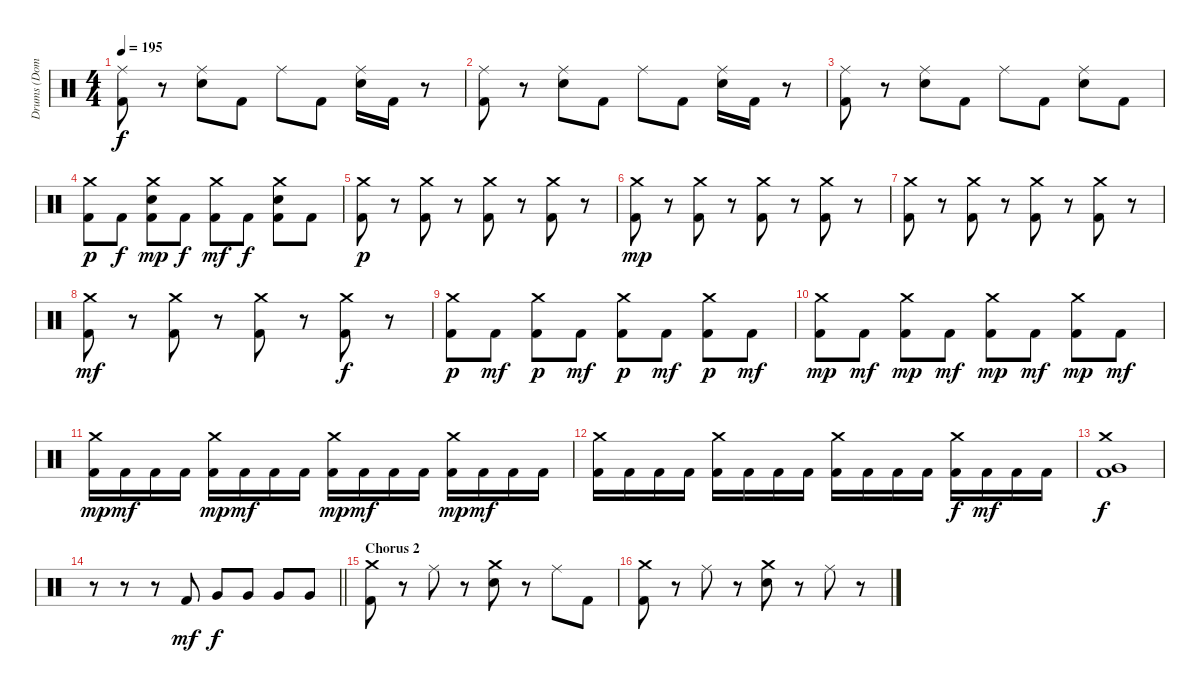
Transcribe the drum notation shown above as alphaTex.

\track ("Drums (Dominik)" "Drums (Dom") {instrument percussion}
\staff {score}
\articulation defaults
\ts (4 4)
\tempo 195
\clef neutral
\ks c
("Ride (middle)" "Kick (hit) 2").8{dy f} r.8 ("Ride (middle)" "Electric Snare (hit)").8 "Kick (hit) 2".8 "Ride (middle)".8 "Kick (hit) 2".8 ("Ride (middle)" "Electric Snare (hit)").16 "Kick (hit) 2".16 r.8 |
("Ride (middle)" "Kick (hit) 2").8 r.8 ("Ride (middle)" "Electric Snare (hit)").8 "Kick (hit) 2".8 "Ride (middle)".8 "Kick (hit) 2".8 ("Ride (middle)" "Electric Snare (hit)").16 "Kick (hit) 2".16 r.8 |
("Ride (middle)" "Kick (hit) 2").8 r.8 ("Ride (middle)" "Electric Snare (hit)").8 "Kick (hit) 2".8 "Ride (middle)".8 "Kick (hit) 2".8 ("Ride (middle)" "Electric Snare (hit)").8 "Kick (hit) 2".8 |
("Crash medium (hit)" "Kick (hit) 2").8{dy p} "Kick (hit) 2".8{dy f} ("Crash medium (hit)" "Electric Snare (hit)" "Kick (hit) 2").8{dy mp} "Kick (hit) 2".8{dy f} ("Crash medium (hit)" "Kick (hit) 2").8{dy mf} "Kick (hit) 2".8{dy f} ("Crash medium (hit)" "Electric Snare (hit)" "Kick (hit) 2").8 "Kick (hit) 2".8 |
("Crash medium (hit)" "Kick (hit) 2").8{dy p} r.8 ("Crash medium (hit)" "Kick (hit) 2").8 r.8 ("Crash medium (hit)" "Kick (hit) 2").8 r.8 ("Crash medium (hit)" "Kick (hit) 2").8 r.8 |
("Crash medium (hit)" "Kick (hit) 2").8{dy mp} r.8 ("Crash medium (hit)" "Kick (hit) 2").8 r.8 ("Crash medium (hit)" "Kick (hit) 2").8 r.8 ("Crash medium (hit)" "Kick (hit) 2").8 r.8 |
("Crash medium (hit)" "Kick (hit) 2").8 r.8 ("Crash medium (hit)" "Kick (hit) 2").8 r.8 ("Crash medium (hit)" "Kick (hit) 2").8 r.8 ("Crash medium (hit)" "Kick (hit) 2").8 r.8 |
("Crash medium (hit)" "Kick (hit) 2").8{dy mf} r.8 ("Crash medium (hit)" "Kick (hit) 2").8 r.8 ("Crash medium (hit)" "Kick (hit) 2").8 r.8 ("Crash medium (hit)" "Kick (hit) 2").8{dy f} r.8 |
("Crash medium (hit)" "Kick (hit) 2").8{dy p} "Kick (hit) 2".8{dy mf} ("Crash medium (hit)" "Kick (hit) 2").8{dy p} "Kick (hit) 2".8{dy mf} ("Crash medium (hit)" "Kick (hit) 2").8{dy p} "Kick (hit) 2".8{dy mf} ("Crash medium (hit)" "Kick (hit) 2").8{dy p} "Kick (hit) 2".8{dy mf} |
("Crash medium (hit)" "Kick (hit) 2").8{dy mp} "Kick (hit) 2".8{dy mf} ("Crash medium (hit)" "Kick (hit) 2").8{dy mp} "Kick (hit) 2".8{dy mf} ("Crash medium (hit)" "Kick (hit) 2").8{dy mp} "Kick (hit) 2".8{dy mf} ("Crash medium (hit)" "Kick (hit) 2").8{dy mp} "Kick (hit) 2".8{dy mf} |
("Crash medium (hit)" "Kick (hit) 2").16{dy mp} "Kick (hit) 2".16{dy mf} "Kick (hit) 2".16 "Kick (hit) 2".16 ("Crash medium (hit)" "Kick (hit) 2").16{dy mp} "Kick (hit) 2".16{dy mf} "Kick (hit) 2".16 "Kick (hit) 2".16 ("Crash medium (hit)" "Kick (hit) 2").16{dy mp} "Kick (hit) 2".16{dy mf} "Kick (hit) 2".16 "Kick (hit) 2".16 ("Crash medium (hit)" "Kick (hit) 2").16{dy mp} "Kick (hit) 2".16{dy mf} "Kick (hit) 2".16 "Kick (hit) 2".16 |
("Crash medium (hit)" "Kick (hit) 2").16 "Kick (hit) 2".16 "Kick (hit) 2".16 "Kick (hit) 2".16 ("Crash medium (hit)" "Kick (hit) 2").16 "Kick (hit) 2".16 "Kick (hit) 2".16 "Kick (hit) 2".16 ("Crash medium (hit)" "Kick (hit) 2").16 "Kick (hit) 2".16 "Kick (hit) 2".16 "Kick (hit) 2".16 ("Crash medium (hit)" "Kick (hit) 2").16{dy f} "Kick (hit) 2".16{dy mf} "Kick (hit) 2".16 "Kick (hit) 2".16 |
("Crash medium (hit)" "Very Low Tom (hit)" "Kick (hit) 2").1{dy f} |
\barLineRight lightlight
r.8 r.8 r.8 "Kick (hit) 2".8{dy mf} "Very Low Tom (hit)".8{dy f} "Very Low Tom (hit)".8 "Very Low Tom (hit)".8 "Very Low Tom (hit)".8 |
\section ("" "Chorus 2")
("Crash medium (hit)" "Kick (hit) 2").8 r.8 "Ride (middle)".8 r.8 ("Crash medium (hit)" "Electric Snare (hit)").8 r.8 "Ride (middle)".8 "Kick (hit) 2".8 |
("Crash medium (hit)" "Kick (hit) 2").8 r.8 "Ride (middle)".8 r.8 ("Crash medium (hit)" "Electric Snare (hit)").8 r.8 "Ride (middle)".8 r.8
